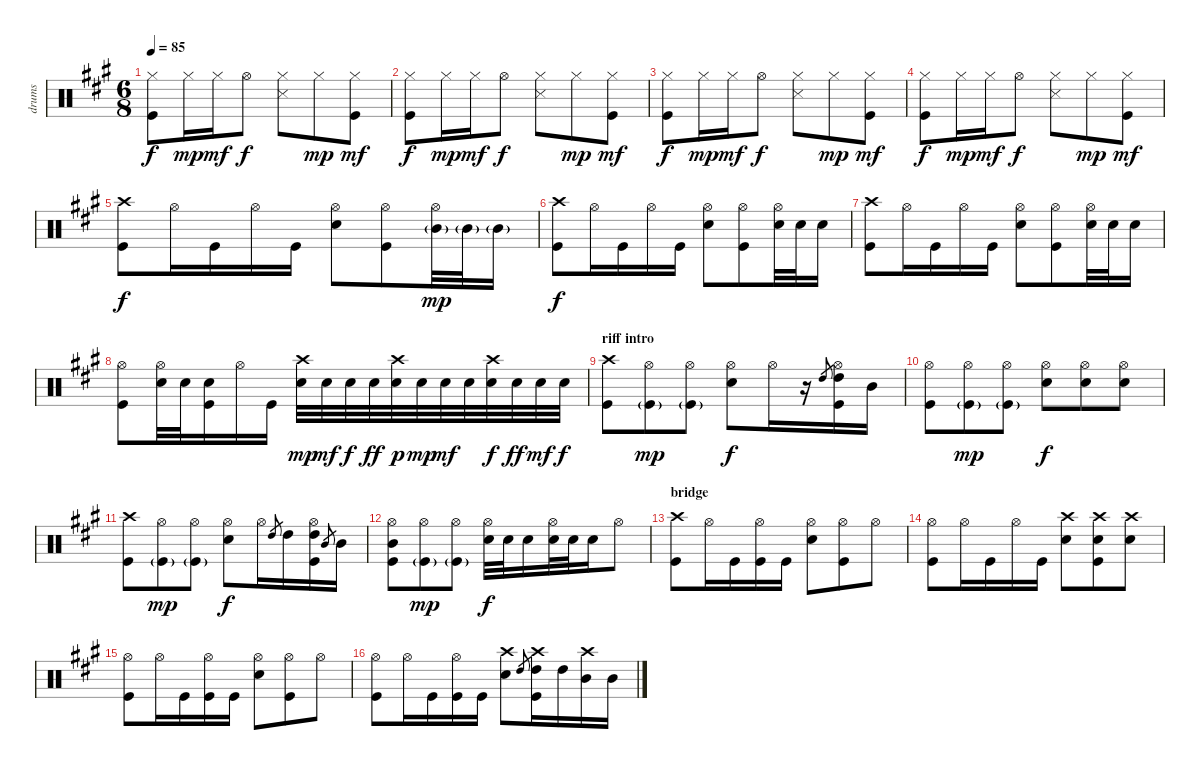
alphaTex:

\track ("drums" "drums") {instrument percussion}
\staff {score}
\articulation defaults
\ts (6 8)
\tempo 85
\clef neutral
\ks f#minor
("Hi-Hat (closed)" "Kick (hit)").8{dy f} "Hi-Hat (closed)".16{dy mp} "Hi-Hat (closed)".16{dy mf} "Hi-Hat (open)".8{dy f} ("Hi-Hat (closed)" "Snare (side stick) 3").8 "Hi-Hat (closed)".8{dy mp} ("Hi-Hat (closed)" "Kick (hit)").8{dy mf} |
("Hi-Hat (closed)" "Kick (hit)").8{dy f} "Hi-Hat (closed)".16{dy mp} "Hi-Hat (closed)".16{dy mf} "Hi-Hat (open)".8{dy f} ("Hi-Hat (closed)" "Snare (side stick) 3").8 "Hi-Hat (closed)".8{dy mp} ("Hi-Hat (closed)" "Kick (hit)").8{dy mf} |
("Hi-Hat (closed)" "Kick (hit)").8{dy f} "Hi-Hat (closed)".16{dy mp} "Hi-Hat (closed)".16{dy mf} "Hi-Hat (open)".8{dy f} ("Hi-Hat (closed)" "Snare (side stick) 3").8 "Hi-Hat (closed)".8{dy mp} ("Hi-Hat (closed)" "Kick (hit)").8{dy mf} |
("Hi-Hat (closed)" "Kick (hit)").8{dy f} "Hi-Hat (closed)".16{dy mp} "Hi-Hat (closed)".16{dy mf} "Hi-Hat (open)".8{dy f} ("Hi-Hat (closed)" "Snare (side stick) 3").8 "Hi-Hat (closed)".8{dy mp} ("Hi-Hat (closed)" "Kick (hit)").8{dy mf} |
("Crash high (hit)" "Kick (hit)").8{dy f} "Hi-Hat (open)".16 "Kick (hit)".16 "Hi-Hat (open)".16 "Kick (hit)".16 ("Hi-Hat (open)" "Electric Snare (hit)").8 ("Hi-Hat (open)" "Kick (hit)").8 ("Hi-Hat (open)" "Mid Tom (hit)"{g}).32{dy mp} "Mid Tom (hit)"{g}.32 "Mid Tom (hit)"{g}.16 |
("Crash high (hit)" "Kick (hit)").8{dy f} "Hi-Hat (open)".16 "Kick (hit)".16 "Hi-Hat (open)".16 "Kick (hit)".16 ("Hi-Hat (open)" "Electric Snare (hit)").8 ("Hi-Hat (open)" "Kick (hit)").8 ("Hi-Hat (open)" "Electric Snare (hit)").32 "Electric Snare (hit)".32 "Electric Snare (hit)".16 |
("Crash high (hit)" "Kick (hit)").8 "Hi-Hat (open)".16 "Kick (hit)".16 "Hi-Hat (open)".16 "Kick (hit)".16 ("Hi-Hat (open)" "Electric Snare (hit)").8 ("Hi-Hat (open)" "Kick (hit)").8 ("Hi-Hat (open)" "Electric Snare (hit)").32 "Electric Snare (hit)".32 "Electric Snare (hit)".16 |
("Hi-Hat (open)" "Kick (hit)").8 ("Hi-Hat (open)" "Electric Snare (hit)").32 "Electric Snare (hit)".32 ("Electric Snare (hit)" "Kick (hit)").16 "Hi-Hat (open)".16 "Kick (hit)".16 ("Crash high (hit)" "Electric Snare (hit)").32{dy mp} "Electric Snare (hit)".32{dy mf} "Electric Snare (hit)".32{dy f} "Electric Snare (hit)".32{dy ff} ("Crash high (hit)" "Electric Snare (hit)").32{dy p} "Electric Snare (hit)".32{dy mp} "Electric Snare (hit)".32{dy mf} "Electric Snare (hit)".32 ("Crash high (hit)" "Electric Snare (hit)").32{dy f} "Electric Snare (hit)".32{dy ff} "Electric Snare (hit)".32{dy mf} "Electric Snare (hit)".32{dy f} |
\section ("" "riff intro")
("Crash high (hit)" "Kick (hit)").8 ("Hi-Hat (open)" "Kick (hit)"{g}).8{dy mp} ("Hi-Hat (open)" "Kick (hit)"{g}).8 ("Hi-Hat (open)" "Electric Snare (hit)").8{dy f} "Hi-Hat (open)".16 r.16 "High Tom (hit)".8{gr} ("Hi-Hat (open)" "High Tom (hit)" "Kick (hit)").16 "Mid Tom (hit)".16 |
("Hi-Hat (open)" "Kick (hit)").8 ("Hi-Hat (open)" "Kick (hit)"{g}).8{dy mp} ("Hi-Hat (open)" "Kick (hit)"{g}).8 ("Hi-Hat (open)" "Electric Snare (hit)").8{dy f} ("Hi-Hat (open)" "Electric Snare (hit)").8 ("Hi-Hat (open)" "Electric Snare (hit)").8 |
("Crash high (hit)" "Kick (hit)").8 ("Hi-Hat (open)" "Kick (hit)"{g}).8{dy mp} ("Hi-Hat (open)" "Kick (hit)"{g}).8 ("Hi-Hat (open)" "Electric Snare (hit)").8{dy f} "Hi-Hat (open)".16 "High Tom (hit)".8{gr} "High Tom (hit)".16 ("Hi-Hat (open)" "High Tom (hit)" "Kick (hit)").16 "Mid Tom (hit)".8{gr} "Mid Tom (hit)".16 |
("Hi-Hat (open)" "Mid Tom (hit)" "Kick (hit)").8 ("Hi-Hat (open)" "Kick (hit)"{g}).8{dy mp} ("Hi-Hat (open)" "Kick (hit)"{g}).8 ("Hi-Hat (open)" "Electric Snare (hit)").32{dy f} "Electric Snare (hit)".32 "Electric Snare (hit)".16 ("Hi-Hat (open)" "Electric Snare (hit)").32 "Electric Snare (hit)".32 "Electric Snare (hit)".16 "Hi-Hat (open)".8 |
\section ("" "bridge")
("Crash high (hit)" "Kick (hit)").8 "Hi-Hat (open)".16 "Kick (hit)".16 ("Hi-Hat (open)" "Kick (hit)").16 "Kick (hit)".16 ("Hi-Hat (open)" "Electric Snare (hit)").8 ("Hi-Hat (open)" "Kick (hit)").8 "Hi-Hat (open)".8 |
("Hi-Hat (open)" "Kick (hit)").8 "Hi-Hat (open)".16 "Kick (hit)".16 "Hi-Hat (open)".16 "Kick (hit)".16 ("Crash high (hit)" "Electric Snare (hit)").8 ("Crash high (hit)" "Electric Snare (hit)" "Kick (hit)").8 ("Crash high (hit)" "Electric Snare (hit)").8 |
("Hi-Hat (open)" "Kick (hit)").8 "Hi-Hat (open)".16 "Kick (hit)".16 ("Hi-Hat (open)" "Kick (hit)").16 "Kick (hit)".16 ("Hi-Hat (open)" "Electric Snare (hit)").8 ("Hi-Hat (open)" "Kick (hit)").8 "Hi-Hat (open)".8 |
("Hi-Hat (open)" "Kick (hit)").8 "Hi-Hat (open)".16 "Kick (hit)".16 ("Hi-Hat (open)" "Kick (hit)").16 "Kick (hit)".16 ("Crash high (hit)" "Electric Snare (hit)").8 "High Tom (hit)".8{gr} ("Crash high (hit)" "High Tom (hit)" "Kick (hit)").16 "High Tom (hit)".16 ("Crash high (hit)" "Mid Tom (hit)").16 "Mid Tom (hit)".16
